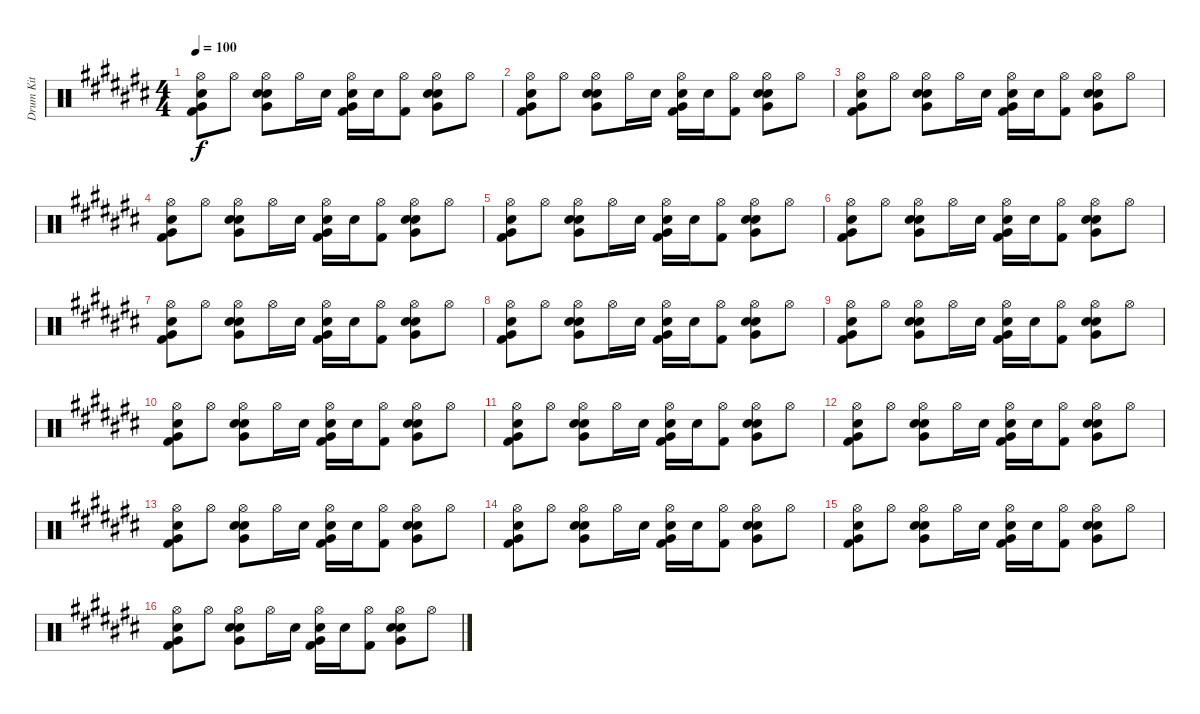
\track ("Drum Kit" "Drum Kit") {instrument percussion}
\staff {score}
\articulation defaults
\ts (4 4)
\tempo 100
\clef neutral
\ks c#
("Hi-Hat (open)" "Electric Snare (hit)" "Very Low Tom (hit)" "Kick (hit) 2").8{dy f} "Hi-Hat (open)".8 ("Hi-Hat (open)" "Electric Snare (hit)" "Very Low Tom (hit)" "Snare (hit) 2").8 "Hi-Hat (open)".16 "Snare (hit) 2".16 ("Hi-Hat (open)" "Electric Snare (hit)" "Very Low Tom (hit)" "Kick (hit) 2").16 "Snare (hit) 2".16 ("Hi-Hat (open)" "Kick (hit) 2").8 ("Hi-Hat (open)" "Electric Snare (hit)" "Very Low Tom (hit)" "Snare (hit) 2").8 "Hi-Hat (open)".8 |
("Hi-Hat (open)" "Electric Snare (hit)" "Very Low Tom (hit)" "Kick (hit) 2").8 "Hi-Hat (open)".8 ("Hi-Hat (open)" "Electric Snare (hit)" "Very Low Tom (hit)" "Snare (hit) 2").8 "Hi-Hat (open)".16 "Snare (hit) 2".16 ("Hi-Hat (open)" "Electric Snare (hit)" "Very Low Tom (hit)" "Kick (hit) 2").16 "Snare (hit) 2".16 ("Hi-Hat (open)" "Kick (hit) 2").8 ("Hi-Hat (open)" "Electric Snare (hit)" "Very Low Tom (hit)" "Snare (hit) 2").8 "Hi-Hat (open)".8 |
("Hi-Hat (open)" "Electric Snare (hit)" "Very Low Tom (hit)" "Kick (hit) 2").8 "Hi-Hat (open)".8 ("Hi-Hat (open)" "Electric Snare (hit)" "Very Low Tom (hit)" "Snare (hit) 2").8 "Hi-Hat (open)".16 "Snare (hit) 2".16 ("Hi-Hat (open)" "Electric Snare (hit)" "Very Low Tom (hit)" "Kick (hit) 2").16 "Snare (hit) 2".16 ("Hi-Hat (open)" "Kick (hit) 2").8 ("Hi-Hat (open)" "Electric Snare (hit)" "Very Low Tom (hit)" "Snare (hit) 2").8 "Hi-Hat (open)".8 |
("Hi-Hat (open)" "Electric Snare (hit)" "Very Low Tom (hit)" "Kick (hit) 2").8 "Hi-Hat (open)".8 ("Hi-Hat (open)" "Electric Snare (hit)" "Very Low Tom (hit)" "Snare (hit) 2").8 "Hi-Hat (open)".16 "Snare (hit) 2".16 ("Hi-Hat (open)" "Electric Snare (hit)" "Very Low Tom (hit)" "Kick (hit) 2").16 "Snare (hit) 2".16 ("Hi-Hat (open)" "Kick (hit) 2").8 ("Hi-Hat (open)" "Electric Snare (hit)" "Very Low Tom (hit)" "Snare (hit) 2").8 "Hi-Hat (open)".8 |
("Hi-Hat (open)" "Electric Snare (hit)" "Very Low Tom (hit)" "Kick (hit) 2").8 "Hi-Hat (open)".8 ("Hi-Hat (open)" "Electric Snare (hit)" "Very Low Tom (hit)" "Snare (hit) 2").8 "Hi-Hat (open)".16 "Snare (hit) 2".16 ("Hi-Hat (open)" "Electric Snare (hit)" "Very Low Tom (hit)" "Kick (hit) 2").16 "Snare (hit) 2".16 ("Hi-Hat (open)" "Kick (hit) 2").8 ("Hi-Hat (open)" "Electric Snare (hit)" "Very Low Tom (hit)" "Snare (hit) 2").8 "Hi-Hat (open)".8 |
("Hi-Hat (open)" "Electric Snare (hit)" "Very Low Tom (hit)" "Kick (hit) 2").8 "Hi-Hat (open)".8 ("Hi-Hat (open)" "Electric Snare (hit)" "Very Low Tom (hit)" "Snare (hit) 2").8 "Hi-Hat (open)".16 "Snare (hit) 2".16 ("Hi-Hat (open)" "Electric Snare (hit)" "Very Low Tom (hit)" "Kick (hit) 2").16 "Snare (hit) 2".16 ("Hi-Hat (open)" "Kick (hit) 2").8 ("Hi-Hat (open)" "Electric Snare (hit)" "Very Low Tom (hit)" "Snare (hit) 2").8 "Hi-Hat (open)".8 |
("Hi-Hat (open)" "Electric Snare (hit)" "Very Low Tom (hit)" "Kick (hit) 2").8 "Hi-Hat (open)".8 ("Hi-Hat (open)" "Electric Snare (hit)" "Very Low Tom (hit)" "Snare (hit) 2").8 "Hi-Hat (open)".16 "Snare (hit) 2".16 ("Hi-Hat (open)" "Electric Snare (hit)" "Very Low Tom (hit)" "Kick (hit) 2").16 "Snare (hit) 2".16 ("Hi-Hat (open)" "Kick (hit) 2").8 ("Hi-Hat (open)" "Electric Snare (hit)" "Very Low Tom (hit)" "Snare (hit) 2").8 "Hi-Hat (open)".8 |
("Hi-Hat (open)" "Electric Snare (hit)" "Very Low Tom (hit)" "Kick (hit) 2").8 "Hi-Hat (open)".8 ("Hi-Hat (open)" "Electric Snare (hit)" "Very Low Tom (hit)" "Snare (hit) 2").8 "Hi-Hat (open)".16 "Snare (hit) 2".16 ("Hi-Hat (open)" "Electric Snare (hit)" "Very Low Tom (hit)" "Kick (hit) 2").16 "Snare (hit) 2".16 ("Hi-Hat (open)" "Kick (hit) 2").8 ("Hi-Hat (open)" "Electric Snare (hit)" "Very Low Tom (hit)" "Snare (hit) 2").8 "Hi-Hat (open)".8 |
("Hi-Hat (open)" "Electric Snare (hit)" "Very Low Tom (hit)" "Kick (hit) 2").8 "Hi-Hat (open)".8 ("Hi-Hat (open)" "Electric Snare (hit)" "Very Low Tom (hit)" "Snare (hit) 2").8 "Hi-Hat (open)".16 "Snare (hit) 2".16 ("Hi-Hat (open)" "Electric Snare (hit)" "Very Low Tom (hit)" "Kick (hit) 2").16 "Snare (hit) 2".16 ("Hi-Hat (open)" "Kick (hit) 2").8 ("Hi-Hat (open)" "Electric Snare (hit)" "Very Low Tom (hit)" "Snare (hit) 2").8 "Hi-Hat (open)".8 |
("Hi-Hat (open)" "Electric Snare (hit)" "Very Low Tom (hit)" "Kick (hit) 2").8 "Hi-Hat (open)".8 ("Hi-Hat (open)" "Electric Snare (hit)" "Very Low Tom (hit)" "Snare (hit) 2").8 "Hi-Hat (open)".16 "Snare (hit) 2".16 ("Hi-Hat (open)" "Electric Snare (hit)" "Very Low Tom (hit)" "Kick (hit) 2").16 "Snare (hit) 2".16 ("Hi-Hat (open)" "Kick (hit) 2").8 ("Hi-Hat (open)" "Electric Snare (hit)" "Very Low Tom (hit)" "Snare (hit) 2").8 "Hi-Hat (open)".8 |
("Hi-Hat (open)" "Electric Snare (hit)" "Very Low Tom (hit)" "Kick (hit) 2").8 "Hi-Hat (open)".8 ("Hi-Hat (open)" "Electric Snare (hit)" "Very Low Tom (hit)" "Snare (hit) 2").8 "Hi-Hat (open)".16 "Snare (hit) 2".16 ("Hi-Hat (open)" "Electric Snare (hit)" "Very Low Tom (hit)" "Kick (hit) 2").16 "Snare (hit) 2".16 ("Hi-Hat (open)" "Kick (hit) 2").8 ("Hi-Hat (open)" "Electric Snare (hit)" "Very Low Tom (hit)" "Snare (hit) 2").8 "Hi-Hat (open)".8 |
("Hi-Hat (open)" "Electric Snare (hit)" "Very Low Tom (hit)" "Kick (hit) 2").8 "Hi-Hat (open)".8 ("Hi-Hat (open)" "Electric Snare (hit)" "Very Low Tom (hit)" "Snare (hit) 2").8 "Hi-Hat (open)".16 "Snare (hit) 2".16 ("Hi-Hat (open)" "Electric Snare (hit)" "Very Low Tom (hit)" "Kick (hit) 2").16 "Snare (hit) 2".16 ("Hi-Hat (open)" "Kick (hit) 2").8 ("Hi-Hat (open)" "Electric Snare (hit)" "Very Low Tom (hit)" "Snare (hit) 2").8 "Hi-Hat (open)".8 |
("Hi-Hat (open)" "Electric Snare (hit)" "Very Low Tom (hit)" "Kick (hit) 2").8 "Hi-Hat (open)".8 ("Hi-Hat (open)" "Electric Snare (hit)" "Very Low Tom (hit)" "Snare (hit) 2").8 "Hi-Hat (open)".16 "Snare (hit) 2".16 ("Hi-Hat (open)" "Electric Snare (hit)" "Very Low Tom (hit)" "Kick (hit) 2").16 "Snare (hit) 2".16 ("Hi-Hat (open)" "Kick (hit) 2").8 ("Hi-Hat (open)" "Electric Snare (hit)" "Very Low Tom (hit)" "Snare (hit) 2").8 "Hi-Hat (open)".8 |
("Hi-Hat (open)" "Electric Snare (hit)" "Very Low Tom (hit)" "Kick (hit) 2").8 "Hi-Hat (open)".8 ("Hi-Hat (open)" "Electric Snare (hit)" "Very Low Tom (hit)" "Snare (hit) 2").8 "Hi-Hat (open)".16 "Snare (hit) 2".16 ("Hi-Hat (open)" "Electric Snare (hit)" "Very Low Tom (hit)" "Kick (hit) 2").16 "Snare (hit) 2".16 ("Hi-Hat (open)" "Kick (hit) 2").8 ("Hi-Hat (open)" "Electric Snare (hit)" "Very Low Tom (hit)" "Snare (hit) 2").8 "Hi-Hat (open)".8 |
("Hi-Hat (open)" "Electric Snare (hit)" "Very Low Tom (hit)" "Kick (hit) 2").8 "Hi-Hat (open)".8 ("Hi-Hat (open)" "Electric Snare (hit)" "Very Low Tom (hit)" "Snare (hit) 2").8 "Hi-Hat (open)".16 "Snare (hit) 2".16 ("Hi-Hat (open)" "Electric Snare (hit)" "Very Low Tom (hit)" "Kick (hit) 2").16 "Snare (hit) 2".16 ("Hi-Hat (open)" "Kick (hit) 2").8 ("Hi-Hat (open)" "Electric Snare (hit)" "Very Low Tom (hit)" "Snare (hit) 2").8 "Hi-Hat (open)".8 |
("Hi-Hat (open)" "Electric Snare (hit)" "Very Low Tom (hit)" "Kick (hit) 2").8 "Hi-Hat (open)".8 ("Hi-Hat (open)" "Electric Snare (hit)" "Very Low Tom (hit)" "Snare (hit) 2").8 "Hi-Hat (open)".16 "Snare (hit) 2".16 ("Hi-Hat (open)" "Electric Snare (hit)" "Very Low Tom (hit)" "Kick (hit) 2").16 "Snare (hit) 2".16 ("Hi-Hat (open)" "Kick (hit) 2").8 ("Hi-Hat (open)" "Electric Snare (hit)" "Very Low Tom (hit)" "Snare (hit) 2").8 "Hi-Hat (open)".8
